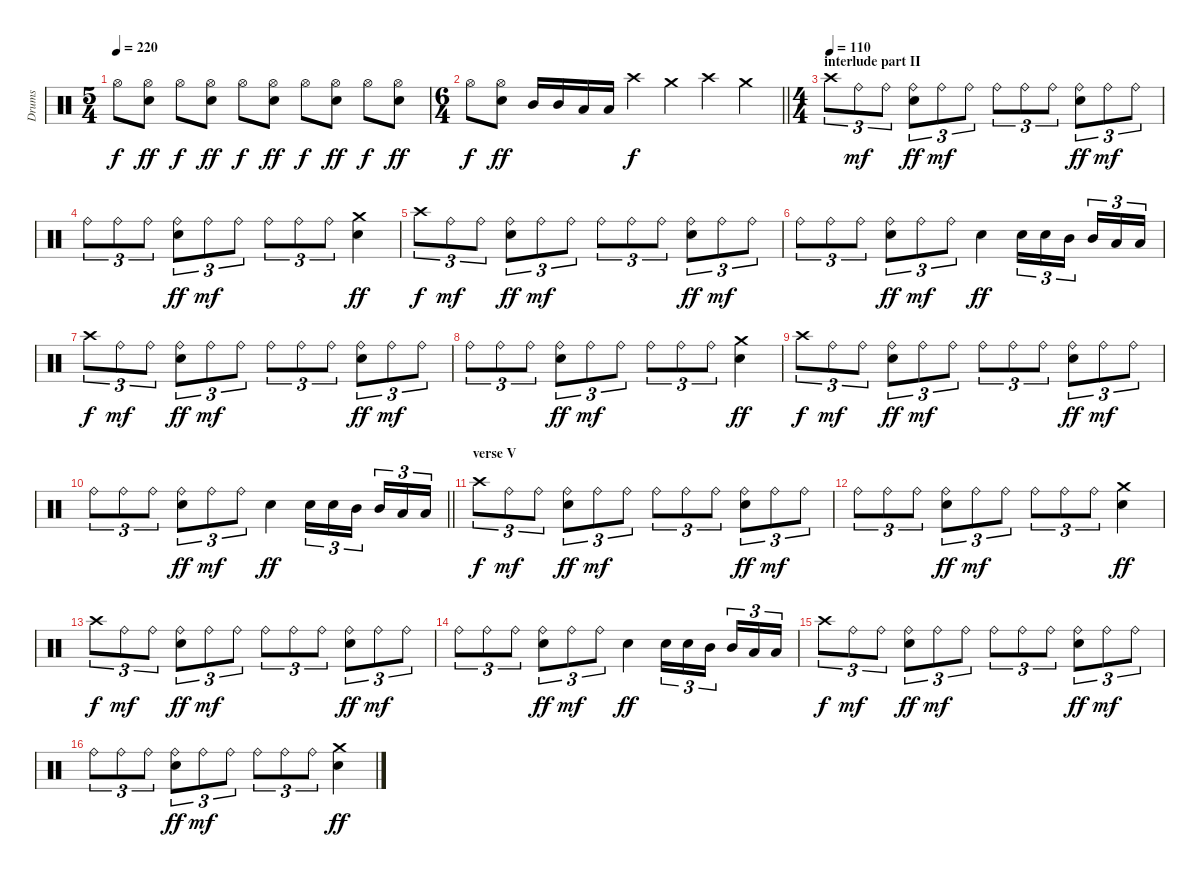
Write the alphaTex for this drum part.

\track ("Drums" "Drums") {instrument percussion}
\staff {score}
\articulation defaults
\ts (5 4)
\tempo 220
\clef neutral
\ks c "Hi-Hat (open)".8{dy f}
("Hi-Hat (open)" "Snare (hit) 2").8{dy ff} "Hi-Hat (open)".8{dy f} ("Hi-Hat (open)" "Snare (hit) 2").8{dy ff} "Hi-Hat (open)".8{dy f} ("Hi-Hat (open)" "Snare (hit) 2").8{dy ff} "Hi-Hat (open)".8{dy f} ("Hi-Hat (open)" "Snare (hit) 2").8{dy ff} "Hi-Hat (open)".8{dy f} ("Hi-Hat (open)" "Snare (hit) 2").8{dy ff} |
\ts (6 4)
\barLineRight lightlight "Hi-Hat (open)".8{dy f}
("Hi-Hat (open)" "Snare (hit) 2").8{dy ff} "Mid Tom (hit)".16 "Mid Tom (hit)".16 "Low Tom (hit)".16 "Low Tom (hit)".16 "Crash high (hit)".4{dy f} "Crash medium (hit)".4 "Crash high (hit)".4 "Crash medium (hit)".4 |
\ts (4 4)
\section ("" "interlude part II")
\tempo (110)
"Crash high (hit)".8{tu (3 2)} "Ride (bell)".8{tu (3 2) dy mf} "Ride (bell)".8{tu (3 2)} ("Ride (bell)" "Snare (hit) 2").8{tu (3 2) dy ff} "Ride (bell)".8{tu (3 2) dy mf} "Ride (bell)".8{tu (3 2)} "Ride (bell)".8{tu (3 2)} "Ride (bell)".8{tu (3 2)} "Ride (bell)".8{tu (3 2)} ("Ride (bell)" "Snare (hit) 2").8{tu (3 2) dy ff} "Ride (bell)".8{tu (3 2) dy mf} "Ride (bell)".8{tu (3 2)} |
"Ride (bell)".8{tu (3 2)} "Ride (bell)".8{tu (3 2)} "Ride (bell)".8{tu (3 2)} ("Ride (bell)" "Snare (hit) 2").8{tu (3 2) dy ff} "Ride (bell)".8{tu (3 2) dy mf} "Ride (bell)".8{tu (3 2)} "Ride (bell)".8{tu (3 2)} "Ride (bell)".8{tu (3 2)} "Ride (bell)".8{tu (3 2)} ("Crash medium (hit)" "Snare (hit) 2").4{dy ff} |
"Crash high (hit)".8{tu (3 2) dy f} "Ride (bell)".8{tu (3 2) dy mf} "Ride (bell)".8{tu (3 2)} ("Ride (bell)" "Snare (hit) 2").8{tu (3 2) dy ff} "Ride (bell)".8{tu (3 2) dy mf} "Ride (bell)".8{tu (3 2)} "Ride (bell)".8{tu (3 2)} "Ride (bell)".8{tu (3 2)} "Ride (bell)".8{tu (3 2)} ("Ride (bell)" "Snare (hit) 2").8{tu (3 2) dy ff} "Ride (bell)".8{tu (3 2) dy mf} "Ride (bell)".8{tu (3 2)} |
"Ride (bell)".8{tu (3 2)} "Ride (bell)".8{tu (3 2)} "Ride (bell)".8{tu (3 2)} ("Ride (bell)" "Snare (hit) 2").8{tu (3 2) dy ff} "Ride (bell)".8{tu (3 2) dy mf} "Ride (bell)".8{tu (3 2)} "Snare (hit) 2".4{dy ff} "Snare (hit) 2".16{tu (3 2)} "Snare (hit) 2".16{tu (3 2)} "Mid Tom (hit)".16{tu (3 2) beam splitsecondary} "Mid Tom (hit)".16{tu (3 2)} "Low Tom (hit)".16{tu (3 2)} "Low Tom (hit)".16{tu (3 2)} |
"Crash high (hit)".8{tu (3 2) dy f} "Ride (bell)".8{tu (3 2) dy mf} "Ride (bell)".8{tu (3 2)} ("Ride (bell)" "Snare (hit) 2").8{tu (3 2) dy ff} "Ride (bell)".8{tu (3 2) dy mf} "Ride (bell)".8{tu (3 2)} "Ride (bell)".8{tu (3 2)} "Ride (bell)".8{tu (3 2)} "Ride (bell)".8{tu (3 2)} ("Ride (bell)" "Snare (hit) 2").8{tu (3 2) dy ff} "Ride (bell)".8{tu (3 2) dy mf} "Ride (bell)".8{tu (3 2)} |
"Ride (bell)".8{tu (3 2)} "Ride (bell)".8{tu (3 2)} "Ride (bell)".8{tu (3 2)} ("Ride (bell)" "Snare (hit) 2").8{tu (3 2) dy ff} "Ride (bell)".8{tu (3 2) dy mf} "Ride (bell)".8{tu (3 2)} "Ride (bell)".8{tu (3 2)} "Ride (bell)".8{tu (3 2)} "Ride (bell)".8{tu (3 2)} ("Crash medium (hit)" "Snare (hit) 2").4{dy ff} |
"Crash high (hit)".8{tu (3 2) dy f} "Ride (bell)".8{tu (3 2) dy mf} "Ride (bell)".8{tu (3 2)} ("Ride (bell)" "Snare (hit) 2").8{tu (3 2) dy ff} "Ride (bell)".8{tu (3 2) dy mf} "Ride (bell)".8{tu (3 2)} "Ride (bell)".8{tu (3 2)} "Ride (bell)".8{tu (3 2)} "Ride (bell)".8{tu (3 2)} ("Ride (bell)" "Snare (hit) 2").8{tu (3 2) dy ff} "Ride (bell)".8{tu (3 2) dy mf} "Ride (bell)".8{tu (3 2)} |
\barLineRight lightlight "Ride (bell)".8{tu (3 2)} "Ride (bell)".8{tu (3 2)} "Ride (bell)".8{tu (3 2)}
("Ride (bell)" "Snare (hit) 2").8{tu (3 2) dy ff} "Ride (bell)".8{tu (3 2) dy mf} "Ride (bell)".8{tu (3 2)} "Snare (hit) 2".4{dy ff} "Snare (hit) 2".16{tu (3 2)} "Snare (hit) 2".16{tu (3 2)} "Mid Tom (hit)".16{tu (3 2) beam splitsecondary} "Mid Tom (hit)".16{tu (3 2)} "Low Tom (hit)".16{tu (3 2)} "Low Tom (hit)".16{tu (3 2)} |
\section ("" "verse V")
"Crash high (hit)".8{tu (3 2) dy f} "Ride (bell)".8{tu (3 2) dy mf} "Ride (bell)".8{tu (3 2)} ("Ride (bell)" "Snare (hit) 2").8{tu (3 2) dy ff} "Ride (bell)".8{tu (3 2) dy mf} "Ride (bell)".8{tu (3 2)} "Ride (bell)".8{tu (3 2)} "Ride (bell)".8{tu (3 2)} "Ride (bell)".8{tu (3 2)} ("Ride (bell)" "Snare (hit) 2").8{tu (3 2) dy ff} "Ride (bell)".8{tu (3 2) dy mf} "Ride (bell)".8{tu (3 2)} |
"Ride (bell)".8{tu (3 2)} "Ride (bell)".8{tu (3 2)} "Ride (bell)".8{tu (3 2)} ("Ride (bell)" "Snare (hit) 2").8{tu (3 2) dy ff} "Ride (bell)".8{tu (3 2) dy mf} "Ride (bell)".8{tu (3 2)} "Ride (bell)".8{tu (3 2)} "Ride (bell)".8{tu (3 2)} "Ride (bell)".8{tu (3 2)} ("Crash medium (hit)" "Snare (hit) 2").4{dy ff} |
"Crash high (hit)".8{tu (3 2) dy f} "Ride (bell)".8{tu (3 2) dy mf} "Ride (bell)".8{tu (3 2)} ("Ride (bell)" "Snare (hit) 2").8{tu (3 2) dy ff} "Ride (bell)".8{tu (3 2) dy mf} "Ride (bell)".8{tu (3 2)} "Ride (bell)".8{tu (3 2)} "Ride (bell)".8{tu (3 2)} "Ride (bell)".8{tu (3 2)} ("Ride (bell)" "Snare (hit) 2").8{tu (3 2) dy ff} "Ride (bell)".8{tu (3 2) dy mf} "Ride (bell)".8{tu (3 2)} |
"Ride (bell)".8{tu (3 2)} "Ride (bell)".8{tu (3 2)} "Ride (bell)".8{tu (3 2)} ("Ride (bell)" "Snare (hit) 2").8{tu (3 2) dy ff} "Ride (bell)".8{tu (3 2) dy mf} "Ride (bell)".8{tu (3 2)} "Snare (hit) 2".4{dy ff} "Snare (hit) 2".16{tu (3 2)} "Snare (hit) 2".16{tu (3 2)} "Mid Tom (hit)".16{tu (3 2) beam splitsecondary} "Mid Tom (hit)".16{tu (3 2)} "Low Tom (hit)".16{tu (3 2)} "Low Tom (hit)".16{tu (3 2)} |
"Crash high (hit)".8{tu (3 2) dy f} "Ride (bell)".8{tu (3 2) dy mf} "Ride (bell)".8{tu (3 2)} ("Ride (bell)" "Snare (hit) 2").8{tu (3 2) dy ff} "Ride (bell)".8{tu (3 2) dy mf} "Ride (bell)".8{tu (3 2)} "Ride (bell)".8{tu (3 2)} "Ride (bell)".8{tu (3 2)} "Ride (bell)".8{tu (3 2)} ("Ride (bell)" "Snare (hit) 2").8{tu (3 2) dy ff} "Ride (bell)".8{tu (3 2) dy mf} "Ride (bell)".8{tu (3 2)} |
"Ride (bell)".8{tu (3 2)} "Ride (bell)".8{tu (3 2)} "Ride (bell)".8{tu (3 2)} ("Ride (bell)" "Snare (hit) 2").8{tu (3 2) dy ff} "Ride (bell)".8{tu (3 2) dy mf} "Ride (bell)".8{tu (3 2)} "Ride (bell)".8{tu (3 2)} "Ride (bell)".8{tu (3 2)} "Ride (bell)".8{tu (3 2)} ("Crash medium (hit)" "Snare (hit) 2").4{dy ff}
